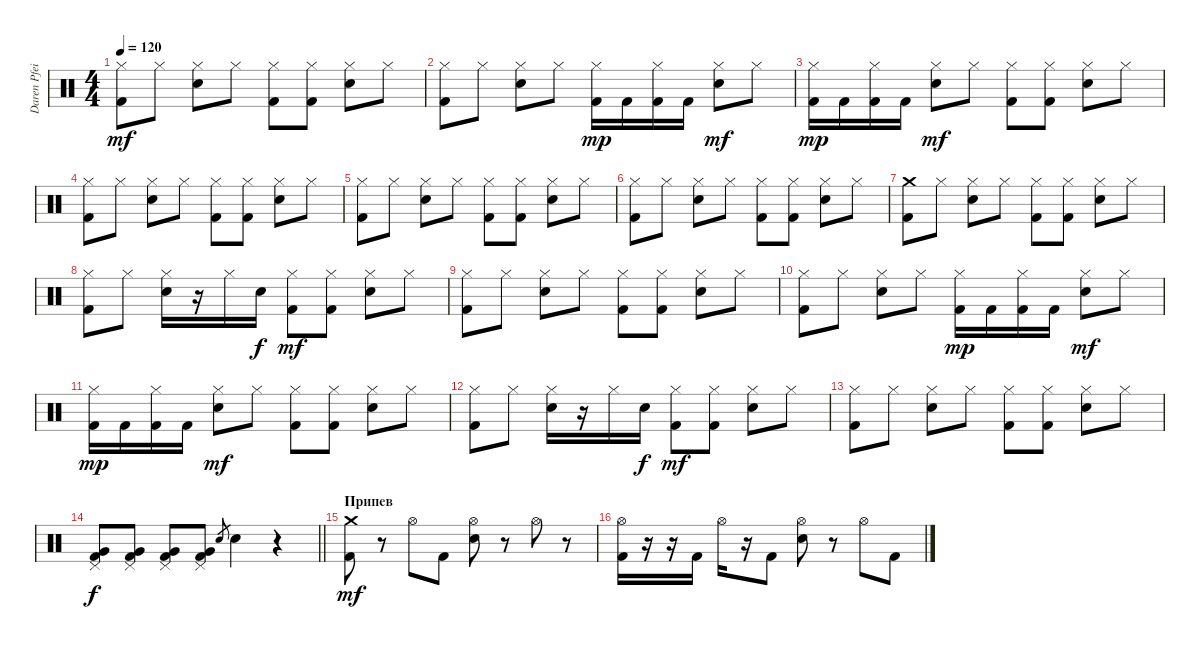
\track ("Daren Pfeifer" "Daren Pfei") {instrument percussion}
\staff {score}
\articulation defaults
\ts (4 4)
\tempo 120
\clef neutral
\ks c
("Hi-Hat (closed)" "Kick (hit) 2").8{dy mf} "Hi-Hat (closed)".8 ("Hi-Hat (closed)" "Snare (hit) 2").8 "Hi-Hat (closed)".8 ("Hi-Hat (closed)" "Kick (hit) 2").8 ("Hi-Hat (closed)" "Kick (hit) 2").8 ("Hi-Hat (closed)" "Snare (hit) 2").8 "Hi-Hat (closed)".8 |
("Hi-Hat (closed)" "Kick (hit) 2").8 "Hi-Hat (closed)".8 ("Hi-Hat (closed)" "Snare (hit) 2").8 "Hi-Hat (closed)".8 ("Hi-Hat (closed)" "Kick (hit) 2").16{dy mp} "Kick (hit) 2".16 ("Hi-Hat (closed)" "Kick (hit) 2").16 "Kick (hit) 2".16 ("Hi-Hat (closed)" "Snare (hit) 2").8{dy mf} "Hi-Hat (closed)".8 |
("Hi-Hat (closed)" "Kick (hit) 2").16{dy mp} "Kick (hit) 2".16 ("Hi-Hat (closed)" "Kick (hit) 2").16 "Kick (hit) 2".16 ("Hi-Hat (closed)" "Snare (hit) 2").8{dy mf} "Hi-Hat (closed)".8 ("Hi-Hat (closed)" "Kick (hit) 2").8 ("Hi-Hat (closed)" "Kick (hit) 2").8 ("Hi-Hat (closed)" "Snare (hit) 2").8 "Hi-Hat (closed)".8 |
("Hi-Hat (closed)" "Kick (hit) 2").8 "Hi-Hat (closed)".8 ("Hi-Hat (closed)" "Snare (hit) 2").8 "Hi-Hat (closed)".8 ("Hi-Hat (closed)" "Kick (hit) 2").8 ("Hi-Hat (closed)" "Kick (hit) 2").8 ("Hi-Hat (closed)" "Snare (hit) 2").8 "Hi-Hat (closed)".8 |
("Hi-Hat (closed)" "Kick (hit) 2").8 "Hi-Hat (closed)".8 ("Hi-Hat (closed)" "Snare (hit) 2").8 "Hi-Hat (closed)".8 ("Hi-Hat (closed)" "Kick (hit) 2").8 ("Hi-Hat (closed)" "Kick (hit) 2").8 ("Hi-Hat (closed)" "Snare (hit) 2").8 "Hi-Hat (closed)".8 |
("Hi-Hat (closed)" "Kick (hit) 2").8 "Hi-Hat (closed)".8 ("Hi-Hat (closed)" "Snare (hit) 2").8 "Hi-Hat (closed)".8 ("Hi-Hat (closed)" "Kick (hit) 2").8 ("Hi-Hat (closed)" "Kick (hit) 2").8 ("Hi-Hat (closed)" "Snare (hit) 2").8 "Hi-Hat (closed)".8 |
("Crash medium (hit)" "Kick (hit) 2").8 "Hi-Hat (closed)".8 ("Hi-Hat (closed)" "Snare (hit) 2").8 "Hi-Hat (closed)".8 ("Hi-Hat (closed)" "Kick (hit) 2").8 ("Hi-Hat (closed)" "Kick (hit) 2").8 ("Hi-Hat (closed)" "Snare (hit) 2").8 "Hi-Hat (closed)".8 |
("Hi-Hat (closed)" "Kick (hit) 2").8 "Hi-Hat (closed)".8 ("Hi-Hat (closed)" "Snare (hit) 2").16 r.16 "Hi-Hat (closed)".16 "Snare (hit) 2".16{dy f} ("Hi-Hat (closed)" "Kick (hit) 2").8{dy mf} ("Hi-Hat (closed)" "Kick (hit) 2").8 ("Hi-Hat (closed)" "Snare (hit) 2").8 "Hi-Hat (closed)".8 |
("Hi-Hat (closed)" "Kick (hit) 2").8 "Hi-Hat (closed)".8 ("Hi-Hat (closed)" "Snare (hit) 2").8 "Hi-Hat (closed)".8 ("Hi-Hat (closed)" "Kick (hit) 2").8 ("Hi-Hat (closed)" "Kick (hit) 2").8 ("Hi-Hat (closed)" "Snare (hit) 2").8 "Hi-Hat (closed)".8 |
("Hi-Hat (closed)" "Kick (hit) 2").8 "Hi-Hat (closed)".8 ("Hi-Hat (closed)" "Snare (hit) 2").8 "Hi-Hat (closed)".8 ("Hi-Hat (closed)" "Kick (hit) 2").16{dy mp} "Kick (hit) 2".16 ("Hi-Hat (closed)" "Kick (hit) 2").16 "Kick (hit) 2".16 ("Hi-Hat (closed)" "Snare (hit) 2").8{dy mf} "Hi-Hat (closed)".8 |
("Hi-Hat (closed)" "Kick (hit) 2").16{dy mp} "Kick (hit) 2".16 ("Hi-Hat (closed)" "Kick (hit) 2").16 "Kick (hit) 2".16 ("Hi-Hat (closed)" "Snare (hit) 2").8{dy mf} "Hi-Hat (closed)".8 ("Hi-Hat (closed)" "Kick (hit) 2").8 ("Hi-Hat (closed)" "Kick (hit) 2").8 ("Hi-Hat (closed)" "Snare (hit) 2").8 "Hi-Hat (closed)".8 |
("Hi-Hat (closed)" "Kick (hit) 2").8 "Hi-Hat (closed)".8 ("Hi-Hat (closed)" "Snare (hit) 2").16 r.16 "Hi-Hat (closed)".16 "Snare (hit) 2".16{dy f} ("Hi-Hat (closed)" "Kick (hit) 2").8{dy mf} ("Hi-Hat (closed)" "Kick (hit) 2").8 ("Hi-Hat (closed)" "Snare (hit) 2").8 "Hi-Hat (closed)".8 |
("Hi-Hat (closed)" "Kick (hit) 2").8 "Hi-Hat (closed)".8 ("Hi-Hat (closed)" "Snare (hit) 2").8 "Hi-Hat (closed)".8 ("Hi-Hat (closed)" "Kick (hit) 2").8 ("Hi-Hat (closed)" "Kick (hit) 2").8 ("Hi-Hat (closed)" "Snare (hit) 2").8 "Hi-Hat (closed)".8 |
\barLineRight lightlight
("Pedal Hi-Hat (hit)" "Very Low Tom (hit)" "Kick (hit) 2").8{dy f} ("Pedal Hi-Hat (hit)" "Very Low Tom (hit)" "Kick (hit) 2").8 ("Pedal Hi-Hat (hit)" "Very Low Tom (hit)" "Kick (hit) 2").8 ("Pedal Hi-Hat (hit)" "Very Low Tom (hit)" "Kick (hit) 2").8 "Snare (hit) 2".8{gr} "Snare (hit) 2".4 r.4 |
\section ("" "Припев")
("Crash medium (hit)" "Kick (hit) 2").8{dy mf} r.8 "Hi-Hat (open)".8 "Kick (hit) 2".8 ("Hi-Hat (open)" "Snare (hit) 2").8 r.8 "Hi-Hat (open)".8 r.8 |
("Hi-Hat (open)" "Kick (hit) 2").16 r.16 r.16 "Kick (hit) 2".16 "Hi-Hat (open)".16 r.16 "Kick (hit) 2".8 ("Hi-Hat (open)" "Snare (hit) 2").8 r.8 "Hi-Hat (open)".8 "Kick (hit) 2".8
